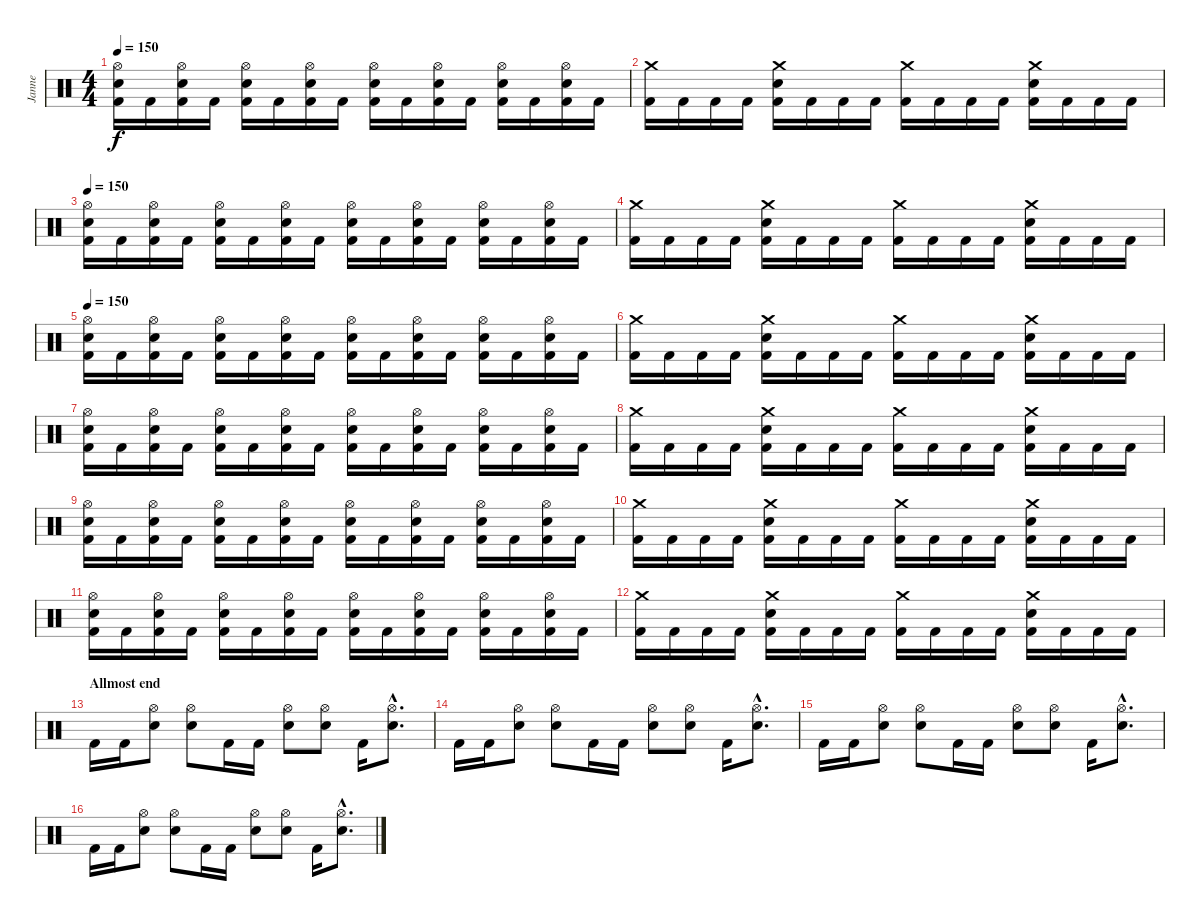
\track ("Janne" "Janne") {instrument percussion}
\staff {score}
\articulation defaults
\ts (4 4)
\tempo 150
\clef neutral
\ks c
("Hi-Hat (open)" "Electric Snare (hit)" "Kick (hit) 2").16{dy f} "Kick (hit) 2".16 ("Hi-Hat (open)" "Electric Snare (hit)" "Kick (hit) 2").16 "Kick (hit) 2".16 ("Hi-Hat (open)" "Electric Snare (hit)" "Kick (hit) 2").16 "Kick (hit) 2".16 ("Hi-Hat (open)" "Electric Snare (hit)" "Kick (hit) 2").16 "Kick (hit) 2".16 ("Hi-Hat (open)" "Electric Snare (hit)" "Kick (hit) 2").16 "Kick (hit) 2".16 ("Hi-Hat (open)" "Electric Snare (hit)" "Kick (hit) 2").16 "Kick (hit) 2".16 ("Hi-Hat (open)" "Electric Snare (hit)" "Kick (hit) 2").16 "Kick (hit) 2".16 ("Hi-Hat (open)" "Electric Snare (hit)" "Kick (hit) 2").16 "Kick (hit) 2".16 |
("Crash medium (hit)" "Kick (hit) 2").16 "Kick (hit) 2".16 "Kick (hit) 2".16 "Kick (hit) 2".16 ("Crash medium (hit)" "Electric Snare (hit)" "Kick (hit) 2").16 "Kick (hit) 2".16 "Kick (hit) 2".16 "Kick (hit) 2".16 ("Crash medium (hit)" "Kick (hit) 2").16 "Kick (hit) 2".16 "Kick (hit) 2".16 "Kick (hit) 2".16 ("Crash medium (hit)" "Electric Snare (hit)" "Kick (hit) 2").16 "Kick (hit) 2".16 "Kick (hit) 2".16 "Kick (hit) 2".16 |
\tempo 150
("Hi-Hat (open)" "Electric Snare (hit)" "Kick (hit) 2").16 "Kick (hit) 2".16 ("Hi-Hat (open)" "Electric Snare (hit)" "Kick (hit) 2").16 "Kick (hit) 2".16 ("Hi-Hat (open)" "Electric Snare (hit)" "Kick (hit) 2").16 "Kick (hit) 2".16 ("Hi-Hat (open)" "Electric Snare (hit)" "Kick (hit) 2").16 "Kick (hit) 2".16 ("Hi-Hat (open)" "Electric Snare (hit)" "Kick (hit) 2").16 "Kick (hit) 2".16 ("Hi-Hat (open)" "Electric Snare (hit)" "Kick (hit) 2").16 "Kick (hit) 2".16 ("Hi-Hat (open)" "Electric Snare (hit)" "Kick (hit) 2").16 "Kick (hit) 2".16 ("Hi-Hat (open)" "Electric Snare (hit)" "Kick (hit) 2").16 "Kick (hit) 2".16 |
("Crash medium (hit)" "Kick (hit) 2").16 "Kick (hit) 2".16 "Kick (hit) 2".16 "Kick (hit) 2".16 ("Crash medium (hit)" "Electric Snare (hit)" "Kick (hit) 2").16 "Kick (hit) 2".16 "Kick (hit) 2".16 "Kick (hit) 2".16 ("Crash medium (hit)" "Kick (hit) 2").16 "Kick (hit) 2".16 "Kick (hit) 2".16 "Kick (hit) 2".16 ("Crash medium (hit)" "Electric Snare (hit)" "Kick (hit) 2").16 "Kick (hit) 2".16 "Kick (hit) 2".16 "Kick (hit) 2".16 |
\tempo 150
("Hi-Hat (open)" "Electric Snare (hit)" "Kick (hit) 2").16 "Kick (hit) 2".16 ("Hi-Hat (open)" "Electric Snare (hit)" "Kick (hit) 2").16 "Kick (hit) 2".16 ("Hi-Hat (open)" "Electric Snare (hit)" "Kick (hit) 2").16 "Kick (hit) 2".16 ("Hi-Hat (open)" "Electric Snare (hit)" "Kick (hit) 2").16 "Kick (hit) 2".16 ("Hi-Hat (open)" "Electric Snare (hit)" "Kick (hit) 2").16 "Kick (hit) 2".16 ("Hi-Hat (open)" "Electric Snare (hit)" "Kick (hit) 2").16 "Kick (hit) 2".16 ("Hi-Hat (open)" "Electric Snare (hit)" "Kick (hit) 2").16 "Kick (hit) 2".16 ("Hi-Hat (open)" "Electric Snare (hit)" "Kick (hit) 2").16 "Kick (hit) 2".16 |
("Crash medium (hit)" "Kick (hit) 2").16 "Kick (hit) 2".16 "Kick (hit) 2".16 "Kick (hit) 2".16 ("Crash medium (hit)" "Electric Snare (hit)" "Kick (hit) 2").16 "Kick (hit) 2".16 "Kick (hit) 2".16 "Kick (hit) 2".16 ("Crash medium (hit)" "Kick (hit) 2").16 "Kick (hit) 2".16 "Kick (hit) 2".16 "Kick (hit) 2".16 ("Crash medium (hit)" "Electric Snare (hit)" "Kick (hit) 2").16 "Kick (hit) 2".16 "Kick (hit) 2".16 "Kick (hit) 2".16 |
("Hi-Hat (open)" "Electric Snare (hit)" "Kick (hit) 2").16 "Kick (hit) 2".16 ("Hi-Hat (open)" "Electric Snare (hit)" "Kick (hit) 2").16 "Kick (hit) 2".16 ("Hi-Hat (open)" "Electric Snare (hit)" "Kick (hit) 2").16 "Kick (hit) 2".16 ("Hi-Hat (open)" "Electric Snare (hit)" "Kick (hit) 2").16 "Kick (hit) 2".16 ("Hi-Hat (open)" "Electric Snare (hit)" "Kick (hit) 2").16 "Kick (hit) 2".16 ("Hi-Hat (open)" "Electric Snare (hit)" "Kick (hit) 2").16 "Kick (hit) 2".16 ("Hi-Hat (open)" "Electric Snare (hit)" "Kick (hit) 2").16 "Kick (hit) 2".16 ("Hi-Hat (open)" "Electric Snare (hit)" "Kick (hit) 2").16 "Kick (hit) 2".16 |
("Crash medium (hit)" "Kick (hit) 2").16 "Kick (hit) 2".16 "Kick (hit) 2".16 "Kick (hit) 2".16 ("Crash medium (hit)" "Electric Snare (hit)" "Kick (hit) 2").16 "Kick (hit) 2".16 "Kick (hit) 2".16 "Kick (hit) 2".16 ("Crash medium (hit)" "Kick (hit) 2").16 "Kick (hit) 2".16 "Kick (hit) 2".16 "Kick (hit) 2".16 ("Crash medium (hit)" "Electric Snare (hit)" "Kick (hit) 2").16 "Kick (hit) 2".16 "Kick (hit) 2".16 "Kick (hit) 2".16 |
("Hi-Hat (open)" "Electric Snare (hit)" "Kick (hit) 2").16 "Kick (hit) 2".16 ("Hi-Hat (open)" "Electric Snare (hit)" "Kick (hit) 2").16 "Kick (hit) 2".16 ("Hi-Hat (open)" "Electric Snare (hit)" "Kick (hit) 2").16 "Kick (hit) 2".16 ("Hi-Hat (open)" "Electric Snare (hit)" "Kick (hit) 2").16 "Kick (hit) 2".16 ("Hi-Hat (open)" "Electric Snare (hit)" "Kick (hit) 2").16 "Kick (hit) 2".16 ("Hi-Hat (open)" "Electric Snare (hit)" "Kick (hit) 2").16 "Kick (hit) 2".16 ("Hi-Hat (open)" "Electric Snare (hit)" "Kick (hit) 2").16 "Kick (hit) 2".16 ("Hi-Hat (open)" "Electric Snare (hit)" "Kick (hit) 2").16 "Kick (hit) 2".16 |
("Crash medium (hit)" "Kick (hit) 2").16 "Kick (hit) 2".16 "Kick (hit) 2".16 "Kick (hit) 2".16 ("Crash medium (hit)" "Electric Snare (hit)" "Kick (hit) 2").16 "Kick (hit) 2".16 "Kick (hit) 2".16 "Kick (hit) 2".16 ("Crash medium (hit)" "Kick (hit) 2").16 "Kick (hit) 2".16 "Kick (hit) 2".16 "Kick (hit) 2".16 ("Crash medium (hit)" "Electric Snare (hit)" "Kick (hit) 2").16 "Kick (hit) 2".16 "Kick (hit) 2".16 "Kick (hit) 2".16 |
("Hi-Hat (open)" "Electric Snare (hit)" "Kick (hit) 2").16 "Kick (hit) 2".16 ("Hi-Hat (open)" "Electric Snare (hit)" "Kick (hit) 2").16 "Kick (hit) 2".16 ("Hi-Hat (open)" "Electric Snare (hit)" "Kick (hit) 2").16 "Kick (hit) 2".16 ("Hi-Hat (open)" "Electric Snare (hit)" "Kick (hit) 2").16 "Kick (hit) 2".16 ("Hi-Hat (open)" "Electric Snare (hit)" "Kick (hit) 2").16 "Kick (hit) 2".16 ("Hi-Hat (open)" "Electric Snare (hit)" "Kick (hit) 2").16 "Kick (hit) 2".16 ("Hi-Hat (open)" "Electric Snare (hit)" "Kick (hit) 2").16 "Kick (hit) 2".16 ("Hi-Hat (open)" "Electric Snare (hit)" "Kick (hit) 2").16 "Kick (hit) 2".16 |
("Crash medium (hit)" "Kick (hit) 2").16 "Kick (hit) 2".16 "Kick (hit) 2".16 "Kick (hit) 2".16 ("Crash medium (hit)" "Electric Snare (hit)" "Kick (hit) 2").16 "Kick (hit) 2".16 "Kick (hit) 2".16 "Kick (hit) 2".16 ("Crash medium (hit)" "Kick (hit) 2").16 "Kick (hit) 2".16 "Kick (hit) 2".16 "Kick (hit) 2".16 ("Crash medium (hit)" "Electric Snare (hit)" "Kick (hit) 2").16 "Kick (hit) 2".16 "Kick (hit) 2".16 "Kick (hit) 2".16 |
\section ("" "Allmost end")
"Kick (hit) 2".16 "Kick (hit) 2".16 ("Hi-Hat (open)" "Electric Snare (hit)").8 ("Hi-Hat (open)" "Electric Snare (hit)").8 "Kick (hit) 2".16 "Kick (hit) 2".16 ("Hi-Hat (open)" "Electric Snare (hit)").8 ("Hi-Hat (open)" "Electric Snare (hit)").8 "Kick (hit) 2".16 ("Hi-Hat (open)"{hac} "Electric Snare (hit)"{hac}).8{d} |
"Kick (hit) 2".16 "Kick (hit) 2".16 ("Hi-Hat (open)" "Electric Snare (hit)").8 ("Hi-Hat (open)" "Electric Snare (hit)").8 "Kick (hit) 2".16 "Kick (hit) 2".16 ("Hi-Hat (open)" "Electric Snare (hit)").8 ("Hi-Hat (open)" "Electric Snare (hit)").8 "Kick (hit) 2".16 ("Hi-Hat (open)"{hac} "Electric Snare (hit)"{hac}).8{d} |
"Kick (hit) 2".16 "Kick (hit) 2".16 ("Hi-Hat (open)" "Electric Snare (hit)").8 ("Hi-Hat (open)" "Electric Snare (hit)").8 "Kick (hit) 2".16 "Kick (hit) 2".16 ("Hi-Hat (open)" "Electric Snare (hit)").8 ("Hi-Hat (open)" "Electric Snare (hit)").8 "Kick (hit) 2".16 ("Hi-Hat (open)"{hac} "Electric Snare (hit)"{hac}).8{d} |
"Kick (hit) 2".16 "Kick (hit) 2".16 ("Hi-Hat (open)" "Electric Snare (hit)").8 ("Hi-Hat (open)" "Electric Snare (hit)").8 "Kick (hit) 2".16 "Kick (hit) 2".16 ("Hi-Hat (open)" "Electric Snare (hit)").8 ("Hi-Hat (open)" "Electric Snare (hit)").8 "Kick (hit) 2".16 ("Hi-Hat (open)"{hac} "Electric Snare (hit)"{hac}).8{d}
